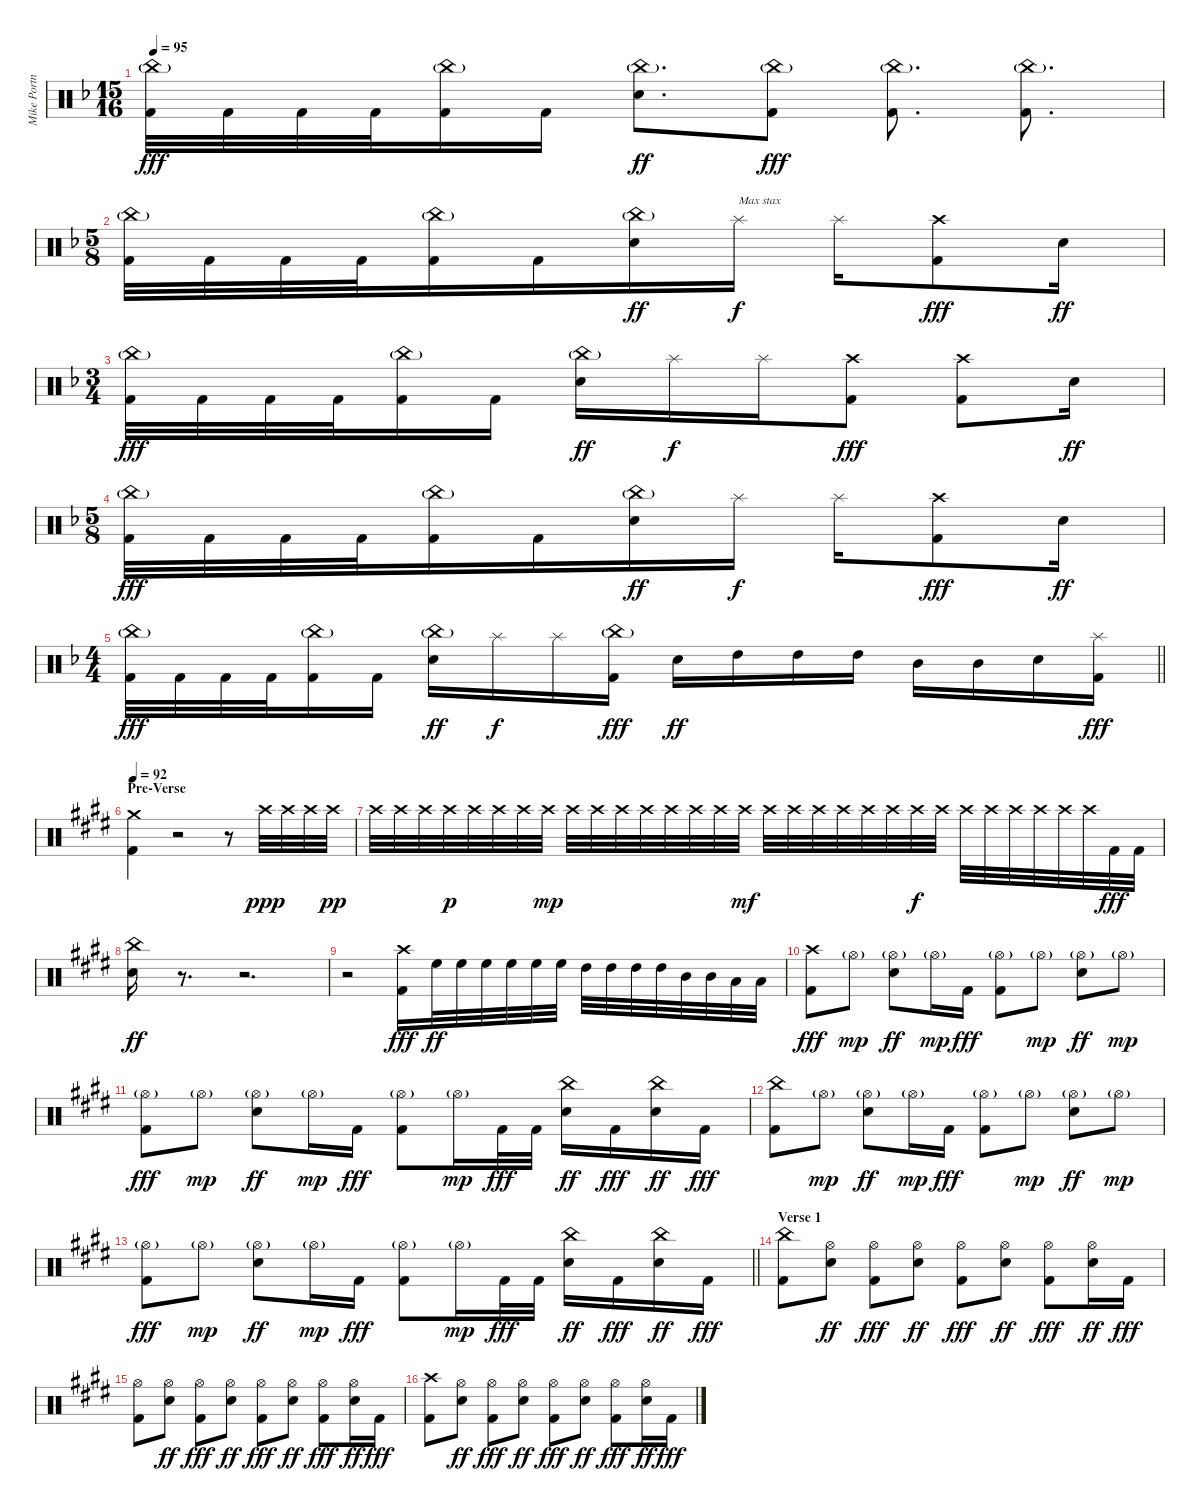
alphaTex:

\track ("Mike Portnoy" "Mike Portn") {instrument percussion}
\staff {score}
\articulation defaults
\ts (15 16)
\tempo 95
\clef neutral
\ks f
("China (hit)"{g} "Kick (hit) 2").32{dy fff} "Kick (hit) 2".32 "Kick (hit) 2".32 "Kick (hit) 2".32 ("China (hit)"{g} "Kick (hit) 2").16 "Kick (hit) 2".16 ("China (hit)"{g} "Electric Snare (hit)").8{d dy ff} ("China (hit)"{g} "Kick (hit) 2").8{dy fff} ("China (hit)"{g} "Kick (hit) 2").8{d} ("China (hit)"{g} "Kick (hit) 2").8{d} |
\ts (5 8)
("China (hit)"{g} "Kick (hit) 2").32 "Kick (hit) 2".32 "Kick (hit) 2".32 "Kick (hit) 2".32 ("China (hit)"{g} "Kick (hit) 2").16 "Kick (hit) 2".16 ("China (hit)"{g} "Electric Snare (hit)").16{dy ff} "Splash (hit)".16{txt "Max stax" dy f} "Splash (hit)".16 ("Crash high (hit)" "Kick (hit) 2").8{dy fff} "Electric Snare (hit)".16{dy ff} |
\ts (3 4)
("China (hit)"{g} "Kick (hit) 2").32{dy fff} "Kick (hit) 2".32 "Kick (hit) 2".32 "Kick (hit) 2".32 ("China (hit)"{g} "Kick (hit) 2").16 "Kick (hit) 2".16 ("China (hit)"{g} "Electric Snare (hit)").16{dy ff} "Splash (hit)".16{dy f} "Splash (hit)".16 ("Crash high (hit)" "Kick (hit) 2").8{dy fff} ("Crash high (hit)" "Kick (hit) 2").8 "Electric Snare (hit)".16{dy ff} |
\ts (5 8)
("China (hit)"{g} "Kick (hit) 2").32{dy fff} "Kick (hit) 2".32 "Kick (hit) 2".32 "Kick (hit) 2".32 ("China (hit)"{g} "Kick (hit) 2").16 "Kick (hit) 2".16 ("China (hit)"{g} "Electric Snare (hit)").16{dy ff} "Splash (hit)".16{dy f} "Splash (hit)".16 ("Crash high (hit)" "Kick (hit) 2").8{dy fff} "Electric Snare (hit)".16{dy ff} |
\ts (4 4)
\barLineRight lightlight
("China (hit)"{g} "Kick (hit) 2").32{dy fff} "Kick (hit) 2".32 "Kick (hit) 2".32 "Kick (hit) 2".32 ("China (hit)"{g} "Kick (hit) 2").16 "Kick (hit) 2".16 ("China (hit)"{g} "Electric Snare (hit)").16{dy ff} "Splash (hit)".16{dy f} "Splash (hit)".16 ("China (hit)"{g} "Kick (hit) 2").16{dy fff} "Electric Snare (hit)".16{dy ff} "High Tom (hit)".16 "High Tom (hit)".16 "High Tom (hit)".16 "Mid Tom (hit)".16 "Mid Tom (hit)".16 "Electric Snare (hit)".16 ("Splash (hit)" "Kick (hit) 2").16{dy fff} |
\section ("" "Pre-Verse")
\tempo 92
\ks e
("Crash medium (hit)" "Kick (hit) 2").4 r.2 r.8 "Crash high (hit)".32{dy ppp} "Crash high (hit)".32 "Crash high (hit)".32 "Crash high (hit)".32{dy pp} |
"Crash high (hit)".32 "Crash high (hit)".32 "Crash high (hit)".32 "Crash high (hit)".32{dy p} "Crash high (hit)".32 "Crash high (hit)".32 "Crash high (hit)".32 "Crash high (hit)".32{dy mp} "Crash high (hit)".32 "Crash high (hit)".32 "Crash high (hit)".32 "Crash high (hit)".32 "Crash high (hit)".32 "Crash high (hit)".32 "Crash high (hit)".32 "Crash high (hit)".32{dy mf} "Crash high (hit)".32 "Crash high (hit)".32 "Crash high (hit)".32 "Crash high (hit)".32 "Crash high (hit)".32 "Crash high (hit)".32 "Crash high (hit)".32{dy f} "Crash high (hit)".32 "Crash high (hit)".32 "Crash high (hit)".32 "Crash high (hit)".32 "Crash high (hit)".32 "Crash high (hit)".32 "Crash high (hit)".32 "Kick (hit) 2".32{dy fff} "Kick (hit) 2".32 |
("China (hit)" "Electric Snare (hit)").16{dy ff} r.8{d} r.2{d} |
r.2 ("Crash high (hit)" "Kick (hit) 2").16{dy fff} "High Floor Tom (hit)".32{dy ff} "High Floor Tom (hit)".32 "High Floor Tom (hit)".32 "High Floor Tom (hit)".32 "High Floor Tom (hit)".32 "High Floor Tom (hit)".32 "High Tom (hit)".32 "High Tom (hit)".32 "High Tom (hit)".32 "High Tom (hit)".32 "Mid Tom (hit)".32 "Mid Tom (hit)".32 "Low Tom (hit)".32 "Low Tom (hit)".32 |
("Crash high (hit)" "Kick (hit) 2").8{dy fff} "Hi-Hat (open)"{g}.8{dy mp} ("Hi-Hat (open)"{g} "Electric Snare (hit)").8{dy ff} "Hi-Hat (open)"{g}.16{dy mp} "Kick (hit) 2".16{dy fff} ("Hi-Hat (open)"{g} "Kick (hit) 2").8 "Hi-Hat (open)"{g}.8{dy mp} ("Hi-Hat (open)"{g} "Electric Snare (hit)").8{dy ff} "Hi-Hat (open)"{g}.8{dy mp} |
("Hi-Hat (open)"{g} "Kick (hit) 2").8{dy fff} "Hi-Hat (open)"{g}.8{dy mp} ("Hi-Hat (open)"{g} "Electric Snare (hit)").8{dy ff} "Hi-Hat (open)"{g}.16{dy mp} "Kick (hit) 2".16{dy fff} ("Hi-Hat (open)"{g} "Kick (hit) 2").8 "Hi-Hat (open)"{g}.16{dy mp} "Kick (hit) 2".32{dy fff} "Kick (hit) 2".32 ("China (hit)" "Electric Snare (hit)").16{dy ff} "Kick (hit) 2".16{dy fff} ("China (hit)" "Electric Snare (hit)").16{dy ff} "Kick (hit) 2".16{dy fff} |
("China (hit)" "Kick (hit) 2").8 "Hi-Hat (open)"{g}.8{dy mp} ("Hi-Hat (open)"{g} "Electric Snare (hit)").8{dy ff} "Hi-Hat (open)"{g}.16{dy mp} "Kick (hit) 2".16{dy fff} ("Hi-Hat (open)"{g} "Kick (hit) 2").8 "Hi-Hat (open)"{g}.8{dy mp} ("Hi-Hat (open)"{g} "Electric Snare (hit)").8{dy ff} "Hi-Hat (open)"{g}.8{dy mp} |
\barLineRight lightlight
("Hi-Hat (open)"{g} "Kick (hit) 2").8{dy fff} "Hi-Hat (open)"{g}.8{dy mp} ("Hi-Hat (open)"{g} "Electric Snare (hit)").8{dy ff} "Hi-Hat (open)"{g}.16{dy mp} "Kick (hit) 2".16{dy fff} ("Hi-Hat (open)"{g} "Kick (hit) 2").8 "Hi-Hat (open)"{g}.16{dy mp} "Kick (hit) 2".32{dy fff} "Kick (hit) 2".32 ("China (hit)" "Electric Snare (hit)").16{dy ff} "Kick (hit) 2".16{dy fff} ("China (hit)" "Electric Snare (hit)").16{dy ff} "Kick (hit) 2".16{dy fff} |
\section ("" "Verse 1")
("China (hit)" "Kick (hit) 2").8 ("Hi-Hat (open)" "Electric Snare (hit)").8{dy ff} ("Hi-Hat (open)" "Kick (hit) 2").8{dy fff} ("Hi-Hat (open)" "Electric Snare (hit)").8{dy ff} ("Hi-Hat (open)" "Kick (hit) 2").8{dy fff} ("Hi-Hat (open)" "Electric Snare (hit)").8{dy ff} ("Hi-Hat (open)" "Kick (hit) 2").8{dy fff} ("Hi-Hat (open)" "Electric Snare (hit)").16{dy ff} "Kick (hit) 2".16{dy fff} |
("Hi-Hat (open)" "Kick (hit) 2").8 ("Hi-Hat (open)" "Electric Snare (hit)").8{dy ff} ("Hi-Hat (open)" "Kick (hit) 2").8{dy fff} ("Hi-Hat (open)" "Electric Snare (hit)").8{dy ff} ("Hi-Hat (open)" "Kick (hit) 2").8{dy fff} ("Hi-Hat (open)" "Electric Snare (hit)").8{dy ff} ("Hi-Hat (open)" "Kick (hit) 2").8{dy fff} ("Hi-Hat (open)" "Electric Snare (hit)").16{dy ff} "Kick (hit) 2".16{dy fff} |
("Crash high (hit)" "Kick (hit) 2").8 ("Hi-Hat (open)" "Electric Snare (hit)").8{dy ff} ("Hi-Hat (open)" "Kick (hit) 2").8{dy fff} ("Hi-Hat (open)" "Electric Snare (hit)").8{dy ff} ("Hi-Hat (open)" "Kick (hit) 2").8{dy fff} ("Hi-Hat (open)" "Electric Snare (hit)").8{dy ff} ("Hi-Hat (open)" "Kick (hit) 2").8{dy fff} ("Hi-Hat (open)" "Electric Snare (hit)").16{dy ff} "Kick (hit) 2".16{dy fff}
